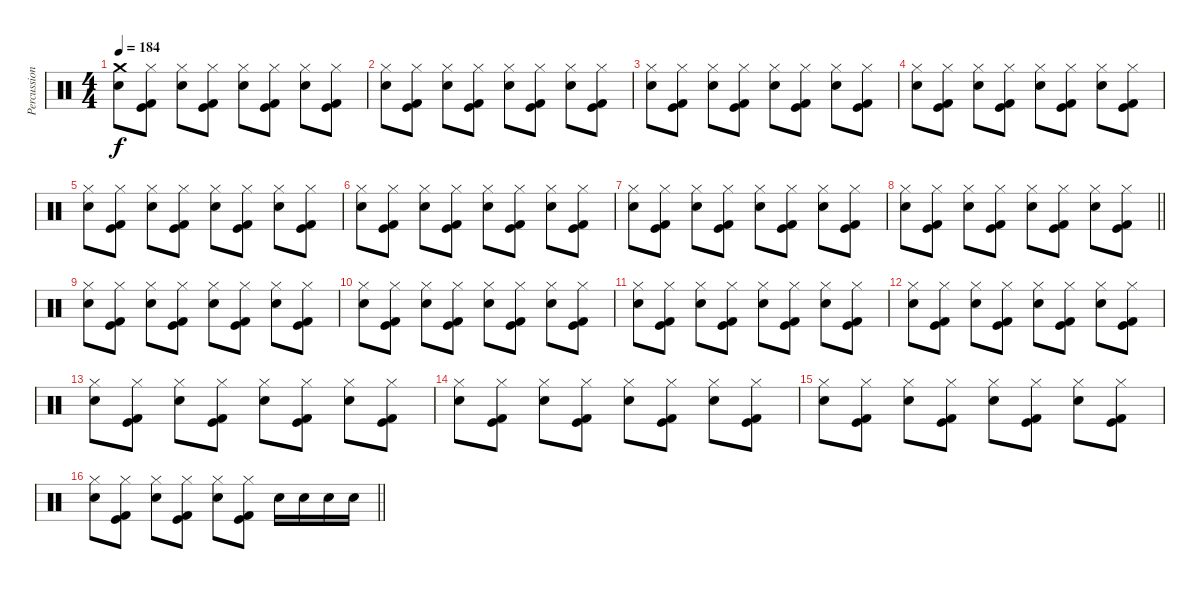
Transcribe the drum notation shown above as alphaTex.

\track ("Percussion" "Percussion") {instrument percussion}
\staff {score}
\articulation defaults
\ts (4 4)
\section ("" "")
\tempo 184
\clef neutral
\ks c
("Crash medium (hit)" "Electric Snare (hit)").8{dy f} ("Hi-Hat (closed)" "Kick (hit)" "Kick (hit) 2").8 ("Hi-Hat (closed)" "Electric Snare (hit)").8 ("Hi-Hat (closed)" "Kick (hit)" "Kick (hit) 2").8 ("Hi-Hat (closed)" "Electric Snare (hit)").8 ("Hi-Hat (closed)" "Kick (hit)" "Kick (hit) 2").8 ("Hi-Hat (closed)" "Electric Snare (hit)").8 ("Hi-Hat (closed)" "Kick (hit)" "Kick (hit) 2").8 |
("Hi-Hat (closed)" "Electric Snare (hit)").8 ("Hi-Hat (closed)" "Kick (hit)" "Kick (hit) 2").8 ("Hi-Hat (closed)" "Electric Snare (hit)").8 ("Hi-Hat (closed)" "Kick (hit)" "Kick (hit) 2").8 ("Hi-Hat (closed)" "Electric Snare (hit)").8 ("Hi-Hat (closed)" "Kick (hit)" "Kick (hit) 2").8 ("Hi-Hat (closed)" "Electric Snare (hit)").8 ("Hi-Hat (closed)" "Kick (hit)" "Kick (hit) 2").8 |
("Hi-Hat (closed)" "Electric Snare (hit)").8 ("Hi-Hat (closed)" "Kick (hit)" "Kick (hit) 2").8 ("Hi-Hat (closed)" "Electric Snare (hit)").8 ("Hi-Hat (closed)" "Kick (hit)" "Kick (hit) 2").8 ("Hi-Hat (closed)" "Electric Snare (hit)").8 ("Hi-Hat (closed)" "Kick (hit)" "Kick (hit) 2").8 ("Hi-Hat (closed)" "Electric Snare (hit)").8 ("Hi-Hat (closed)" "Kick (hit)" "Kick (hit) 2").8 |
("Hi-Hat (closed)" "Electric Snare (hit)").8 ("Hi-Hat (closed)" "Kick (hit)" "Kick (hit) 2").8 ("Hi-Hat (closed)" "Electric Snare (hit)").8 ("Hi-Hat (closed)" "Kick (hit)" "Kick (hit) 2").8 ("Hi-Hat (closed)" "Electric Snare (hit)").8 ("Hi-Hat (closed)" "Kick (hit)" "Kick (hit) 2").8 ("Hi-Hat (closed)" "Electric Snare (hit)").8 ("Hi-Hat (closed)" "Kick (hit)" "Kick (hit) 2").8 |
("Hi-Hat (closed)" "Electric Snare (hit)").8 ("Hi-Hat (closed)" "Kick (hit)" "Kick (hit) 2").8 ("Hi-Hat (closed)" "Electric Snare (hit)").8 ("Hi-Hat (closed)" "Kick (hit)" "Kick (hit) 2").8 ("Hi-Hat (closed)" "Electric Snare (hit)").8 ("Hi-Hat (closed)" "Kick (hit)" "Kick (hit) 2").8 ("Hi-Hat (closed)" "Electric Snare (hit)").8 ("Hi-Hat (closed)" "Kick (hit)" "Kick (hit) 2").8 |
("Hi-Hat (closed)" "Electric Snare (hit)").8 ("Hi-Hat (closed)" "Kick (hit)" "Kick (hit) 2").8 ("Hi-Hat (closed)" "Electric Snare (hit)").8 ("Hi-Hat (closed)" "Kick (hit)" "Kick (hit) 2").8 ("Hi-Hat (closed)" "Electric Snare (hit)").8 ("Hi-Hat (closed)" "Kick (hit)" "Kick (hit) 2").8 ("Hi-Hat (closed)" "Electric Snare (hit)").8 ("Hi-Hat (closed)" "Kick (hit)" "Kick (hit) 2").8 |
("Hi-Hat (closed)" "Electric Snare (hit)").8 ("Hi-Hat (closed)" "Kick (hit)" "Kick (hit) 2").8 ("Hi-Hat (closed)" "Electric Snare (hit)").8 ("Hi-Hat (closed)" "Kick (hit)" "Kick (hit) 2").8 ("Hi-Hat (closed)" "Electric Snare (hit)").8 ("Hi-Hat (closed)" "Kick (hit)" "Kick (hit) 2").8 ("Hi-Hat (closed)" "Electric Snare (hit)").8 ("Hi-Hat (closed)" "Kick (hit)" "Kick (hit) 2").8 |
\barLineRight lightlight
("Hi-Hat (closed)" "Electric Snare (hit)").8 ("Hi-Hat (closed)" "Kick (hit)" "Kick (hit) 2").8 ("Hi-Hat (closed)" "Electric Snare (hit)").8 ("Hi-Hat (closed)" "Kick (hit)" "Kick (hit) 2").8 ("Hi-Hat (closed)" "Electric Snare (hit)").8 ("Hi-Hat (closed)" "Kick (hit)" "Kick (hit) 2").8 ("Hi-Hat (closed)" "Electric Snare (hit)").8 ("Hi-Hat (closed)" "Kick (hit)" "Kick (hit) 2").8 |
("Hi-Hat (closed)" "Electric Snare (hit)").8 ("Hi-Hat (closed)" "Kick (hit)" "Kick (hit) 2").8 ("Hi-Hat (closed)" "Electric Snare (hit)").8 ("Hi-Hat (closed)" "Kick (hit)" "Kick (hit) 2").8 ("Hi-Hat (closed)" "Electric Snare (hit)").8 ("Hi-Hat (closed)" "Kick (hit)" "Kick (hit) 2").8 ("Hi-Hat (closed)" "Electric Snare (hit)").8 ("Hi-Hat (closed)" "Kick (hit)" "Kick (hit) 2").8 |
("Hi-Hat (closed)" "Electric Snare (hit)").8 ("Hi-Hat (closed)" "Kick (hit)" "Kick (hit) 2").8 ("Hi-Hat (closed)" "Electric Snare (hit)").8 ("Hi-Hat (closed)" "Kick (hit)" "Kick (hit) 2").8 ("Hi-Hat (closed)" "Electric Snare (hit)").8 ("Hi-Hat (closed)" "Kick (hit)" "Kick (hit) 2").8 ("Hi-Hat (closed)" "Electric Snare (hit)").8 ("Hi-Hat (closed)" "Kick (hit)" "Kick (hit) 2").8 |
("Hi-Hat (closed)" "Electric Snare (hit)").8 ("Hi-Hat (closed)" "Kick (hit)" "Kick (hit) 2").8 ("Hi-Hat (closed)" "Electric Snare (hit)").8 ("Hi-Hat (closed)" "Kick (hit)" "Kick (hit) 2").8 ("Hi-Hat (closed)" "Electric Snare (hit)").8 ("Hi-Hat (closed)" "Kick (hit)" "Kick (hit) 2").8 ("Hi-Hat (closed)" "Electric Snare (hit)").8 ("Hi-Hat (closed)" "Kick (hit)" "Kick (hit) 2").8 |
("Hi-Hat (closed)" "Electric Snare (hit)").8 ("Hi-Hat (closed)" "Kick (hit)" "Kick (hit) 2").8 ("Hi-Hat (closed)" "Electric Snare (hit)").8 ("Hi-Hat (closed)" "Kick (hit)" "Kick (hit) 2").8 ("Hi-Hat (closed)" "Electric Snare (hit)").8 ("Hi-Hat (closed)" "Kick (hit)" "Kick (hit) 2").8 ("Hi-Hat (closed)" "Electric Snare (hit)").8 ("Hi-Hat (closed)" "Kick (hit)" "Kick (hit) 2").8 |
("Hi-Hat (closed)" "Electric Snare (hit)").8 ("Hi-Hat (closed)" "Kick (hit)" "Kick (hit) 2").8 ("Hi-Hat (closed)" "Electric Snare (hit)").8 ("Hi-Hat (closed)" "Kick (hit)" "Kick (hit) 2").8 ("Hi-Hat (closed)" "Electric Snare (hit)").8 ("Hi-Hat (closed)" "Kick (hit)" "Kick (hit) 2").8 ("Hi-Hat (closed)" "Electric Snare (hit)").8 ("Hi-Hat (closed)" "Kick (hit)" "Kick (hit) 2").8 |
("Hi-Hat (closed)" "Electric Snare (hit)").8 ("Hi-Hat (closed)" "Kick (hit)" "Kick (hit) 2").8 ("Hi-Hat (closed)" "Electric Snare (hit)").8 ("Hi-Hat (closed)" "Kick (hit)" "Kick (hit) 2").8 ("Hi-Hat (closed)" "Electric Snare (hit)").8 ("Hi-Hat (closed)" "Kick (hit)" "Kick (hit) 2").8 ("Hi-Hat (closed)" "Electric Snare (hit)").8 ("Hi-Hat (closed)" "Kick (hit)" "Kick (hit) 2").8 |
("Hi-Hat (closed)" "Electric Snare (hit)").8 ("Hi-Hat (closed)" "Kick (hit)" "Kick (hit) 2").8 ("Hi-Hat (closed)" "Electric Snare (hit)").8 ("Hi-Hat (closed)" "Kick (hit)" "Kick (hit) 2").8 ("Hi-Hat (closed)" "Electric Snare (hit)").8 ("Hi-Hat (closed)" "Kick (hit)" "Kick (hit) 2").8 ("Hi-Hat (closed)" "Electric Snare (hit)").8 ("Hi-Hat (closed)" "Kick (hit)" "Kick (hit) 2").8 |
\barLineRight lightlight
("Hi-Hat (closed)" "Electric Snare (hit)").8 ("Hi-Hat (closed)" "Kick (hit)" "Kick (hit) 2").8 ("Hi-Hat (closed)" "Electric Snare (hit)").8 ("Hi-Hat (closed)" "Kick (hit)" "Kick (hit) 2").8 ("Hi-Hat (closed)" "Electric Snare (hit)").8 ("Hi-Hat (closed)" "Kick (hit)" "Kick (hit) 2").8 "Electric Snare (hit)".16 "Electric Snare (hit)".16 "Electric Snare (hit)".16 "Electric Snare (hit)".16
